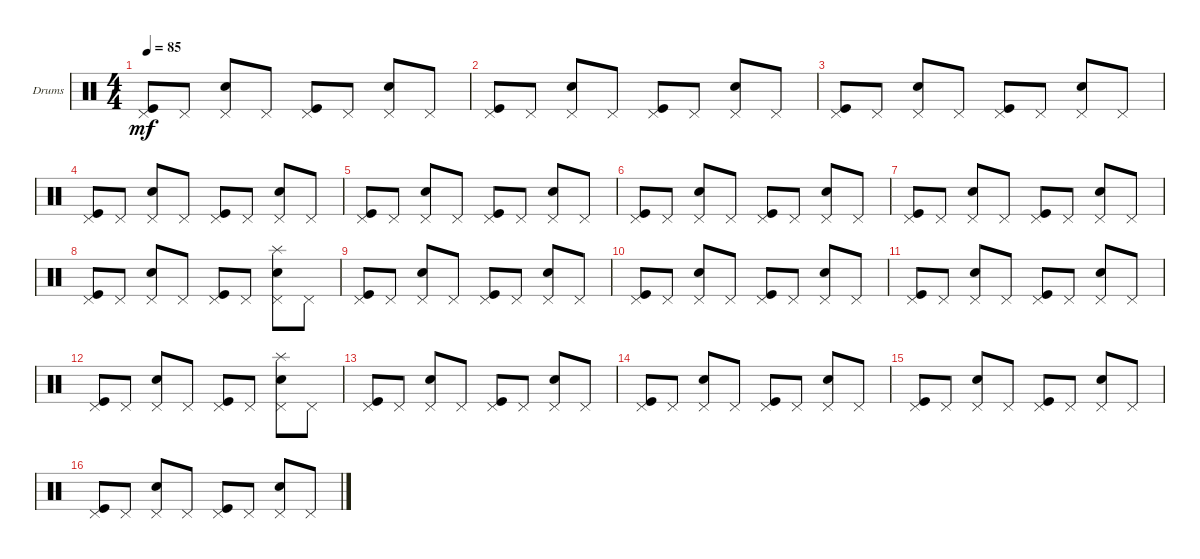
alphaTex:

\defaultSystemsLayout 4
\bracketExtendMode groupsimilarinstruments
\firstSystemTrackNameOrientation horizontal
\otherSystemsTrackNameOrientation horizontal
\track ("Drumkit" "Drums") {instrument percussion}
\staff {score}
\articulation defaults
\ts (4 4)
\tempo 85
\clef neutral
\ks c
("Kick (hit)" "Pedal Hi-Hat (hit)").8{dy mf} "Pedal Hi-Hat (hit)".8 ("Snare (hit) 2" "Pedal Hi-Hat (hit)").8 "Pedal Hi-Hat (hit)".8 ("Kick (hit)" "Pedal Hi-Hat (hit)").8 "Pedal Hi-Hat (hit)".8 ("Snare (hit) 2" "Pedal Hi-Hat (hit)").8 "Pedal Hi-Hat (hit)".8 |
("Kick (hit)" "Pedal Hi-Hat (hit)").8 "Pedal Hi-Hat (hit)".8 ("Snare (hit) 2" "Pedal Hi-Hat (hit)").8 "Pedal Hi-Hat (hit)".8 ("Kick (hit)" "Pedal Hi-Hat (hit)").8 "Pedal Hi-Hat (hit)".8 ("Snare (hit) 2" "Pedal Hi-Hat (hit)").8 "Pedal Hi-Hat (hit)".8 |
("Kick (hit)" "Pedal Hi-Hat (hit)").8 "Pedal Hi-Hat (hit)".8 ("Snare (hit) 2" "Pedal Hi-Hat (hit)").8 "Pedal Hi-Hat (hit)".8 ("Kick (hit)" "Pedal Hi-Hat (hit)").8 "Pedal Hi-Hat (hit)".8 ("Snare (hit) 2" "Pedal Hi-Hat (hit)").8 "Pedal Hi-Hat (hit)".8 |
("Kick (hit)" "Pedal Hi-Hat (hit)").8 "Pedal Hi-Hat (hit)".8 ("Snare (hit) 2" "Pedal Hi-Hat (hit)").8 "Pedal Hi-Hat (hit)".8 ("Kick (hit)" "Pedal Hi-Hat (hit)").8 "Pedal Hi-Hat (hit)".8 ("Snare (hit) 2" "Pedal Hi-Hat (hit)").8 "Pedal Hi-Hat (hit)".8 |
("Kick (hit)" "Pedal Hi-Hat (hit)").8 "Pedal Hi-Hat (hit)".8 ("Snare (hit) 2" "Pedal Hi-Hat (hit)").8 "Pedal Hi-Hat (hit)".8 ("Kick (hit)" "Pedal Hi-Hat (hit)").8 "Pedal Hi-Hat (hit)".8 ("Snare (hit) 2" "Pedal Hi-Hat (hit)").8 "Pedal Hi-Hat (hit)".8 |
("Kick (hit)" "Pedal Hi-Hat (hit)").8 "Pedal Hi-Hat (hit)".8 ("Snare (hit) 2" "Pedal Hi-Hat (hit)").8 "Pedal Hi-Hat (hit)".8 ("Kick (hit)" "Pedal Hi-Hat (hit)").8 "Pedal Hi-Hat (hit)".8 ("Snare (hit) 2" "Pedal Hi-Hat (hit)").8 "Pedal Hi-Hat (hit)".8 |
("Kick (hit)" "Pedal Hi-Hat (hit)").8 "Pedal Hi-Hat (hit)".8 ("Snare (hit) 2" "Pedal Hi-Hat (hit)").8 "Pedal Hi-Hat (hit)".8 ("Kick (hit)" "Pedal Hi-Hat (hit)").8 "Pedal Hi-Hat (hit)".8 ("Snare (hit) 2" "Pedal Hi-Hat (hit)").8 "Pedal Hi-Hat (hit)".8 |
("Kick (hit)" "Pedal Hi-Hat (hit)").8 "Pedal Hi-Hat (hit)".8 ("Snare (hit) 2" "Pedal Hi-Hat (hit)").8 "Pedal Hi-Hat (hit)".8 ("Kick (hit)" "Pedal Hi-Hat (hit)").8 "Pedal Hi-Hat (hit)".8 ("Snare (hit) 2" "Pedal Hi-Hat (hit)" "Splash (hit)").8 "Pedal Hi-Hat (hit)".8 |
("Kick (hit)" "Pedal Hi-Hat (hit)").8 "Pedal Hi-Hat (hit)".8 ("Snare (hit) 2" "Pedal Hi-Hat (hit)").8 "Pedal Hi-Hat (hit)".8 ("Kick (hit)" "Pedal Hi-Hat (hit)").8 "Pedal Hi-Hat (hit)".8 ("Snare (hit) 2" "Pedal Hi-Hat (hit)").8 "Pedal Hi-Hat (hit)".8 |
("Kick (hit)" "Pedal Hi-Hat (hit)").8 "Pedal Hi-Hat (hit)".8 ("Snare (hit) 2" "Pedal Hi-Hat (hit)").8 "Pedal Hi-Hat (hit)".8 ("Kick (hit)" "Pedal Hi-Hat (hit)").8 "Pedal Hi-Hat (hit)".8 ("Snare (hit) 2" "Pedal Hi-Hat (hit)").8 "Pedal Hi-Hat (hit)".8 |
("Kick (hit)" "Pedal Hi-Hat (hit)").8 "Pedal Hi-Hat (hit)".8 ("Snare (hit) 2" "Pedal Hi-Hat (hit)").8 "Pedal Hi-Hat (hit)".8 ("Kick (hit)" "Pedal Hi-Hat (hit)").8 "Pedal Hi-Hat (hit)".8 ("Snare (hit) 2" "Pedal Hi-Hat (hit)").8 "Pedal Hi-Hat (hit)".8 |
("Kick (hit)" "Pedal Hi-Hat (hit)").8 "Pedal Hi-Hat (hit)".8 ("Snare (hit) 2" "Pedal Hi-Hat (hit)").8 "Pedal Hi-Hat (hit)".8 ("Kick (hit)" "Pedal Hi-Hat (hit)").8 "Pedal Hi-Hat (hit)".8 ("Snare (hit) 2" "Pedal Hi-Hat (hit)" "Splash (hit)").8 "Pedal Hi-Hat (hit)".8 |
("Kick (hit)" "Pedal Hi-Hat (hit)").8 "Pedal Hi-Hat (hit)".8 ("Snare (hit) 2" "Pedal Hi-Hat (hit)").8 "Pedal Hi-Hat (hit)".8 ("Kick (hit)" "Pedal Hi-Hat (hit)").8 "Pedal Hi-Hat (hit)".8 ("Snare (hit) 2" "Pedal Hi-Hat (hit)").8 "Pedal Hi-Hat (hit)".8 |
("Kick (hit)" "Pedal Hi-Hat (hit)").8 "Pedal Hi-Hat (hit)".8 ("Snare (hit) 2" "Pedal Hi-Hat (hit)").8 "Pedal Hi-Hat (hit)".8 ("Kick (hit)" "Pedal Hi-Hat (hit)").8 "Pedal Hi-Hat (hit)".8 ("Snare (hit) 2" "Pedal Hi-Hat (hit)").8 "Pedal Hi-Hat (hit)".8 |
("Kick (hit)" "Pedal Hi-Hat (hit)").8 "Pedal Hi-Hat (hit)".8 ("Snare (hit) 2" "Pedal Hi-Hat (hit)").8 "Pedal Hi-Hat (hit)".8 ("Kick (hit)" "Pedal Hi-Hat (hit)").8 "Pedal Hi-Hat (hit)".8 ("Snare (hit) 2" "Pedal Hi-Hat (hit)").8 "Pedal Hi-Hat (hit)".8 |
("Kick (hit)" "Pedal Hi-Hat (hit)").8 "Pedal Hi-Hat (hit)".8 ("Snare (hit) 2" "Pedal Hi-Hat (hit)").8 "Pedal Hi-Hat (hit)".8 ("Kick (hit)" "Pedal Hi-Hat (hit)").8 "Pedal Hi-Hat (hit)".8 ("Snare (hit) 2" "Pedal Hi-Hat (hit)").8 "Pedal Hi-Hat (hit)".8
